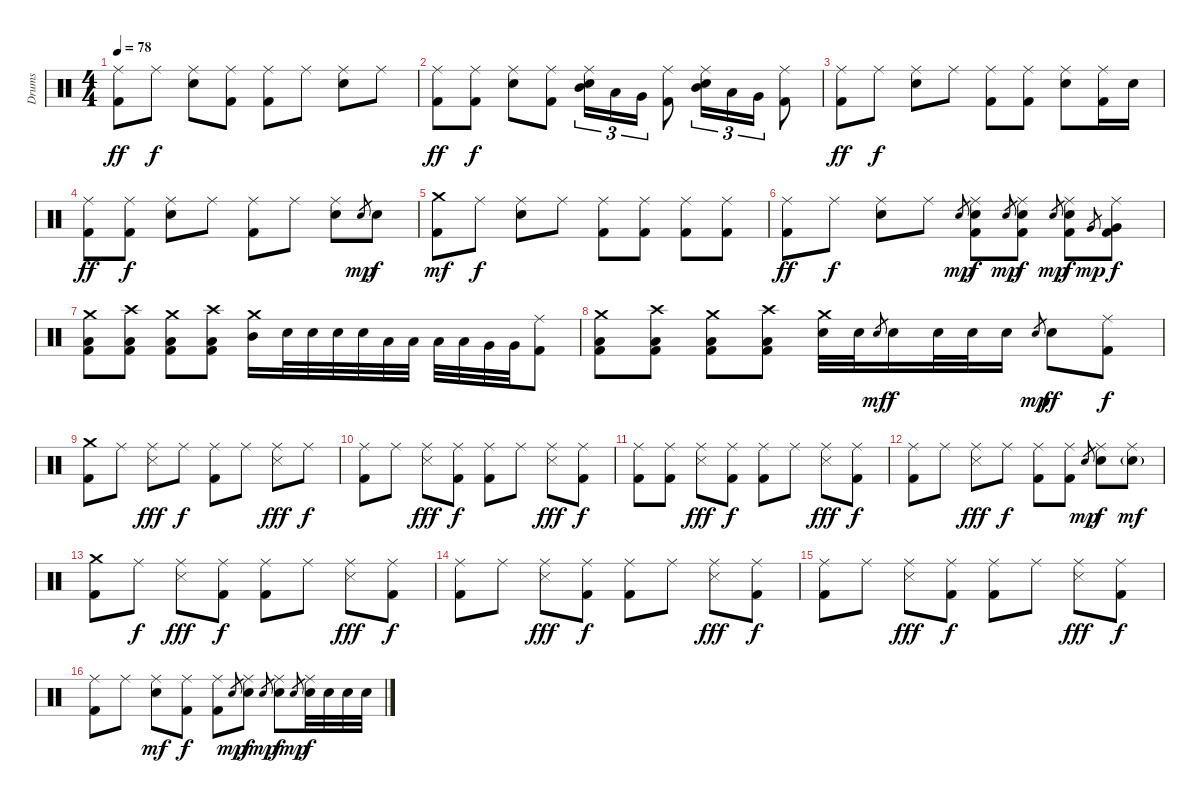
\track ("Drums" "Drums") {instrument percussion}
\staff {score}
\articulation defaults
\ts (4 4)
\tempo 78
\clef neutral
\ks c
("Ride (middle)" "Kick (hit) 2").8{dy ff} "Ride (middle)".8{dy f} ("Ride (middle)" "Electric Snare (hit)").8 ("Ride (middle)" "Kick (hit) 2").8 ("Ride (middle)" "Kick (hit) 2").8 "Ride (middle)".8 ("Ride (middle)" "Electric Snare (hit)").8 "Ride (middle)".8 |
("Ride (middle)" "Kick (hit) 2").8{dy ff} ("Ride (middle)" "Kick (hit) 2").8{dy f} ("Ride (middle)" "Electric Snare (hit)").8 ("Ride (middle)" "Kick (hit) 2").8 ("Ride (middle)" "Mid Tom (hit)" "Electric Snare (hit)").16{tu (3 2)} "Low Tom (hit)".16{tu (3 2)} "Very Low Tom (hit)".16{tu (3 2)} ("Ride (middle)" "Kick (hit) 2").8 ("Ride (middle)" "Mid Tom (hit)" "Electric Snare (hit)").16{tu (3 2)} "Low Tom (hit)".16{tu (3 2)} "Very Low Tom (hit)".16{tu (3 2)} ("Ride (middle)" "Kick (hit) 2").8 |
("Ride (middle)" "Kick (hit) 2").8{dy ff} "Ride (middle)".8{dy f} ("Ride (middle)" "Electric Snare (hit)").8 "Ride (middle)".8 ("Ride (middle)" "Kick (hit) 2").8 ("Ride (middle)" "Kick (hit) 2").8 ("Ride (middle)" "Electric Snare (hit)").8 ("Ride (middle)" "Kick (hit) 2").16 "Electric Snare (hit)".16 |
("Ride (middle)" "Kick (hit) 2").8{dy ff volume 12} ("Ride (middle)" "Kick (hit) 2").8{dy f} ("Ride (middle)" "Electric Snare (hit)").8 "Ride (middle)".8 ("Ride (middle)" "Kick (hit) 2").8 "Ride (middle)".8 ("Ride (middle)" "Electric Snare (hit)").8 "Electric Snare (hit)".8{gr dy mp} "Electric Snare (hit)".8{dy f} |
("Crash medium (hit)" "Kick (hit) 2").8{dy mf} "Ride (middle)".8{dy f} ("Ride (middle)" "Electric Snare (hit)").8 "Ride (middle)".8 ("Ride (middle)" "Kick (hit) 2").8 ("Ride (middle)" "Kick (hit) 2").8 ("Ride (middle)" "Kick (hit) 2").8 ("Ride (middle)" "Kick (hit) 2").8 |
("Ride (middle)" "Kick (hit) 2").8{dy ff} "Ride (middle)".8{dy f} ("Ride (middle)" "Electric Snare (hit)").8 "Ride (middle)".8 "Electric Snare (hit)".8{gr dy mp} ("Ride (middle)" "Electric Snare (hit)" "Kick (hit) 2").8{dy f} "Electric Snare (hit)".8{gr dy mp} ("Ride (middle)" "Electric Snare (hit)" "Kick (hit) 2").8{dy f} "Electric Snare (hit)".8{gr dy mp} ("Ride (middle)" "Electric Snare (hit)" "Kick (hit) 2").8{dy f} "Very Low Tom (hit)".8{gr dy mp} ("Ride (middle)" "Very Low Tom (hit)" "Kick (hit) 2").8{dy f} |
("Crash medium (hit)" "Low Tom (hit)" "Kick (hit) 2").8 ("Crash high (hit)" "Low Tom (hit)" "Kick (hit) 2").8 ("Crash medium (hit)" "Low Tom (hit)" "Kick (hit) 2").8 ("Crash high (hit)" "Low Tom (hit)" "Kick (hit) 2").8 ("Crash medium (hit)" "Mid Tom (hit)").16 "Electric Snare (hit)".32 "Electric Snare (hit)".32 "Electric Snare (hit)".32 "Electric Snare (hit)".32 "Low Tom (hit)".32 "Low Tom (hit)".32 "Low Tom (hit)".32 "Low Tom (hit)".32 "Very Low Tom (hit)".32 "Very Low Tom (hit)".32 ("Ride (middle)" "Kick (hit) 2").8 |
("Crash medium (hit)" "Low Tom (hit)" "Kick (hit) 2").8 ("Crash high (hit)" "Low Tom (hit)" "Kick (hit) 2").8 ("Crash medium (hit)" "Low Tom (hit)" "Kick (hit) 2").8 ("Crash high (hit)" "Low Tom (hit)" "Kick (hit) 2").8 ("Crash medium (hit)" "Electric Snare (hit)").32 "Electric Snare (hit)".32 "Electric Snare (hit)".8{gr dy mf} "Electric Snare (hit)".16{dy f} "Electric Snare (hit)".32 "Electric Snare (hit)".32 "Electric Snare (hit)".16 "Electric Snare (hit)".8{gr dy mp} "Electric Snare (hit)".8{dy ff} ("Ride (middle)" "Kick (hit) 2").8{dy f} |
("Crash medium (hit)" "Kick (hit) 2").8{volume 8} "Ride (middle)".8 ("Ride (middle)" "Metronome (hit)").8{dy fff} "Ride (middle)".8{dy f} ("Ride (middle)" "Kick (hit) 2").8 "Ride (middle)".8 ("Ride (middle)" "Metronome (hit)").8{dy fff} "Ride (middle)".8{dy f} |
("Ride (middle)" "Kick (hit) 2").8 "Ride (middle)".8 ("Ride (middle)" "Metronome (hit)").8{dy fff} ("Ride (middle)" "Kick (hit) 2").8{dy f} ("Ride (middle)" "Kick (hit) 2").8 "Ride (middle)".8 ("Ride (middle)" "Metronome (hit)").8{dy fff} ("Ride (middle)" "Kick (hit) 2").8{dy f} |
("Ride (middle)" "Kick (hit) 2").8 ("Ride (middle)" "Kick (hit) 2").8 ("Ride (middle)" "Metronome (hit)").8{dy fff} ("Ride (middle)" "Kick (hit) 2").8{dy f} ("Ride (middle)" "Kick (hit) 2").8 "Ride (middle)".8 ("Ride (middle)" "Metronome (hit)").8{dy fff} ("Ride (middle)" "Kick (hit) 2").8{dy f} |
("Ride (middle)" "Kick (hit) 2").8 "Ride (middle)".8 ("Ride (middle)" "Metronome (hit)").8{dy fff} "Ride (middle)".8{dy f} ("Ride (middle)" "Kick (hit) 2").8 ("Ride (middle)" "Kick (hit) 2").8 "Electric Snare (hit)".8{gr dy mp} ("Ride (middle)" "Electric Snare (hit)").8{dy f} ("Ride (middle)" "Electric Snare (hit)"{g}).8{dy mf} |
("Crash medium (hit)" "Kick (hit) 2").8 "Ride (middle)".8{dy f} ("Ride (middle)" "Metronome (hit)").8{dy fff} ("Ride (middle)" "Kick (hit) 2").8{dy f} ("Ride (middle)" "Kick (hit) 2").8 "Ride (middle)".8 ("Ride (middle)" "Metronome (hit)").8{dy fff} ("Ride (middle)" "Kick (hit) 2").8{dy f} |
("Ride (middle)" "Kick (hit) 2").8 "Ride (middle)".8 ("Ride (middle)" "Metronome (hit)").8{dy fff} ("Ride (middle)" "Kick (hit) 2").8{dy f} ("Ride (middle)" "Kick (hit) 2").8 "Ride (middle)".8 ("Ride (middle)" "Metronome (hit)").8{dy fff} ("Ride (middle)" "Kick (hit) 2").8{dy f} |
("Ride (middle)" "Kick (hit) 2").8 "Ride (middle)".8 ("Ride (middle)" "Metronome (hit)").8{dy fff} ("Ride (middle)" "Kick (hit) 2").8{dy f} ("Ride (middle)" "Kick (hit) 2").8 "Ride (middle)".8 ("Ride (middle)" "Metronome (hit)").8{dy fff} ("Ride (middle)" "Kick (hit) 2").8{dy f} |
("Ride (middle)" "Kick (hit) 2").8 "Ride (middle)".8 ("Ride (middle)" "Electric Snare (hit)").8{dy mf} ("Ride (middle)" "Kick (hit) 2").8{dy f} ("Ride (middle)" "Kick (hit) 2").8 "Electric Snare (hit)".8{gr dy mp} ("Ride (middle)" "Electric Snare (hit)").8{dy f} "Electric Snare (hit)".8{gr dy mp} ("Ride (middle)" "Electric Snare (hit)").8{dy f} "Electric Snare (hit)".8{gr dy mp} ("Ride (middle)" "Electric Snare (hit)").32{dy f} "Electric Snare (hit)".32 "Electric Snare (hit)".32 "Electric Snare (hit)".32
